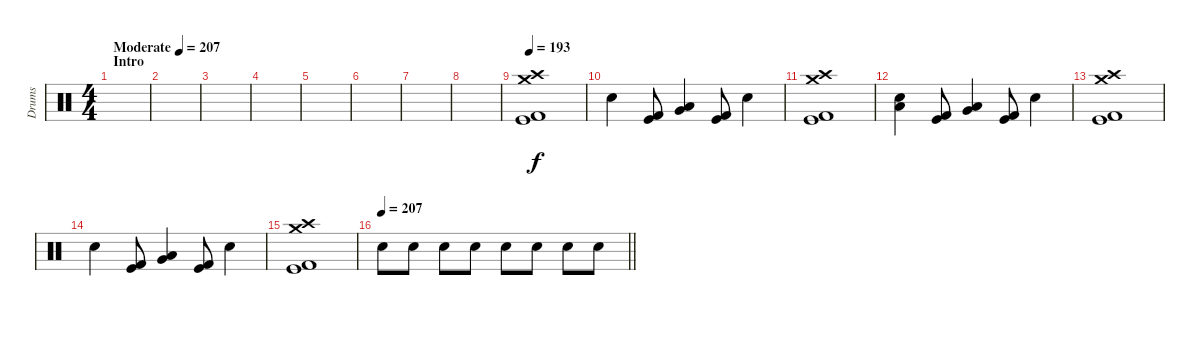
\track ("Drums" "Drums") {instrument percussion}
\staff {score}
\articulation defaults
\ts (4 4)
\section ("" "Intro")
\tempo (207 "Moderate")
\clef neutral
\ks c
|
|
|
|
|
|
|
|
\tempo 193
("Crash high (hit)" "Crash medium (hit)" "Kick (hit)" "Kick (hit) 2").1 |
"Electric Snare (hit)".4 ("Kick (hit)" "Kick (hit) 2").8 ("Very Low Tom (hit)" "Low Tom (hit)").4 ("Kick (hit)" "Kick (hit) 2").8 "Electric Snare (hit)".4 |
("Crash high (hit)" "Crash medium (hit)" "Kick (hit)" "Kick (hit) 2").1 |
("Low Floor Tom (hit)" "Electric Snare (hit)").4 ("Kick (hit)" "Kick (hit) 2").8 ("Very Low Tom (hit)" "Low Tom (hit)").4 ("Kick (hit)" "Kick (hit) 2").8 "Electric Snare (hit)".4 |
("Crash high (hit)" "Crash medium (hit)" "Kick (hit)" "Kick (hit) 2").1 |
"Electric Snare (hit)".4 ("Kick (hit)" "Kick (hit) 2").8 ("Very Low Tom (hit)" "Low Tom (hit)").4 ("Kick (hit)" "Kick (hit) 2").8 "Electric Snare (hit)".4 |
("Crash high (hit)" "Crash medium (hit)" "Kick (hit)" "Kick (hit) 2").1 |
\tempo 207
\barLineRight lightlight "Electric Snare (hit)".8 "Electric Snare (hit)".8 "Electric Snare (hit)".8 "Electric Snare (hit)".8 "Electric Snare (hit)".8 "Electric Snare (hit)".8 "Electric Snare (hit)".8 "Electric Snare (hit)".8
